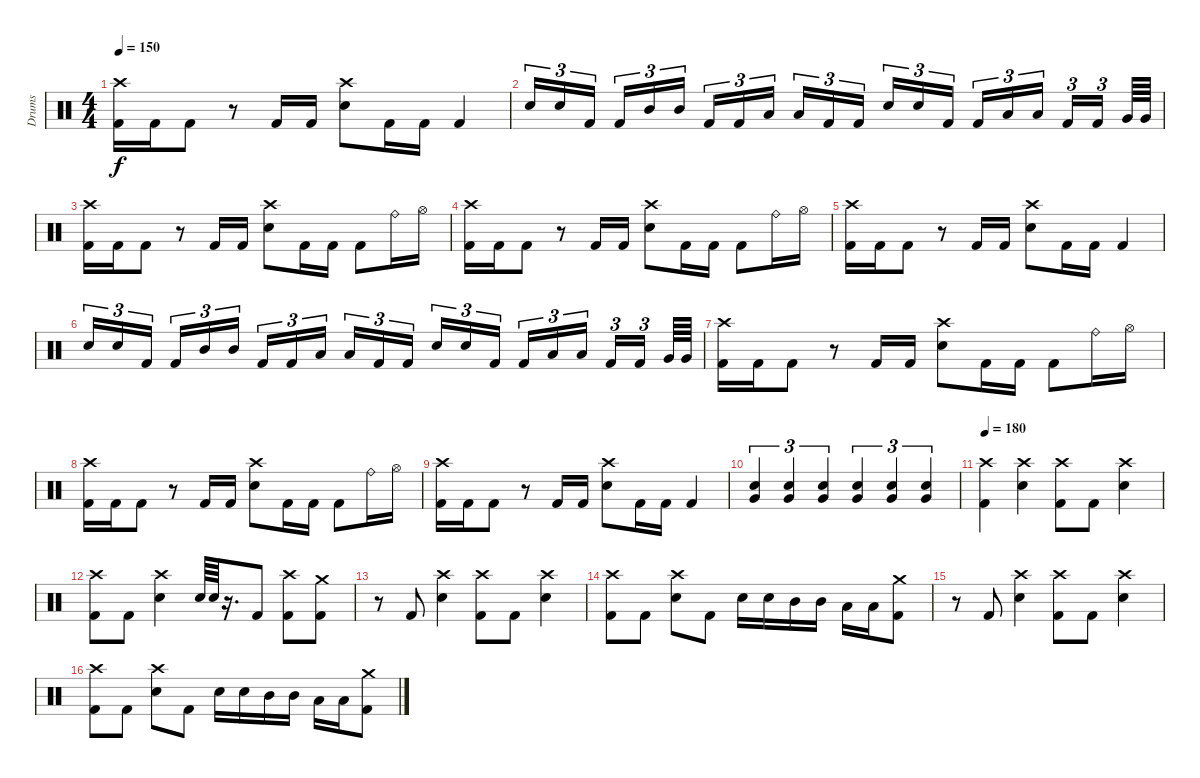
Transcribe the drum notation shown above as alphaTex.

\track ("Drums" "Drums") {instrument percussion}
\staff {score}
\articulation defaults
\ts (4 4)
\tempo 150
\clef neutral
\ks c
("Crash high (hit)" "Kick (hit) 2").16{dy f} "Kick (hit) 2".16 "Kick (hit) 2".8 r.8 "Kick (hit) 2".16 "Kick (hit) 2".16 ("Crash high (hit)" "Electric Snare (hit)").8 "Kick (hit) 2".16 "Kick (hit) 2".16 "Kick (hit) 2".4 |
"Electric Snare (hit)".16{tu (3 2)} "Electric Snare (hit)".16{tu (3 2)} "Kick (hit) 2".16{tu (3 2) beam splitsecondary} "Kick (hit) 2".16{tu (3 2)} "Mid Tom (hit)".16{tu (3 2)} "Mid Tom (hit)".16{tu (3 2)} "Kick (hit) 2".16{tu (3 2)} "Kick (hit) 2".16{tu (3 2)} "Low Tom (hit)".16{tu (3 2) beam splitsecondary} "Low Tom (hit)".16{tu (3 2)} "Kick (hit) 2".16{tu (3 2)} "Kick (hit) 2".16{tu (3 2)} "Electric Snare (hit)".16{tu (3 2)} "Electric Snare (hit)".16{tu (3 2)} "Kick (hit) 2".16{tu (3 2) beam splitsecondary} "Kick (hit) 2".16{tu (3 2)} "Low Tom (hit)".16{tu (3 2)} "Low Tom (hit)".16{tu (3 2)} "Kick (hit) 2".16{tu (3 2)} "Kick (hit) 2".16{tu (3 2) beam splitsecondary} "Very Low Tom (hit)".64 "Very Low Tom (hit)".64 |
("Crash high (hit)" "Kick (hit) 2").16 "Kick (hit) 2".16 "Kick (hit) 2".8 r.8 "Kick (hit) 2".16 "Kick (hit) 2".16 ("Crash high (hit)" "Electric Snare (hit)").8 "Kick (hit) 2".16 "Kick (hit) 2".16 "Kick (hit) 2".8 "Ride (bell)".16 "Hi-Hat (open)".16 |
("Crash high (hit)" "Kick (hit) 2").16 "Kick (hit) 2".16 "Kick (hit) 2".8 r.8 "Kick (hit) 2".16 "Kick (hit) 2".16 ("Crash high (hit)" "Electric Snare (hit)").8 "Kick (hit) 2".16 "Kick (hit) 2".16 "Kick (hit) 2".8 "Ride (bell)".16 "Hi-Hat (open)".16 |
("Crash high (hit)" "Kick (hit) 2").16 "Kick (hit) 2".16 "Kick (hit) 2".8 r.8 "Kick (hit) 2".16 "Kick (hit) 2".16 ("Crash high (hit)" "Electric Snare (hit)").8 "Kick (hit) 2".16 "Kick (hit) 2".16 "Kick (hit) 2".4 |
"Electric Snare (hit)".16{tu (3 2)} "Electric Snare (hit)".16{tu (3 2)} "Kick (hit) 2".16{tu (3 2) beam splitsecondary} "Kick (hit) 2".16{tu (3 2)} "Mid Tom (hit)".16{tu (3 2)} "Mid Tom (hit)".16{tu (3 2)} "Kick (hit) 2".16{tu (3 2)} "Kick (hit) 2".16{tu (3 2)} "Low Tom (hit)".16{tu (3 2) beam splitsecondary} "Low Tom (hit)".16{tu (3 2)} "Kick (hit) 2".16{tu (3 2)} "Kick (hit) 2".16{tu (3 2)} "Electric Snare (hit)".16{tu (3 2)} "Electric Snare (hit)".16{tu (3 2)} "Kick (hit) 2".16{tu (3 2) beam splitsecondary} "Kick (hit) 2".16{tu (3 2)} "Low Tom (hit)".16{tu (3 2)} "Low Tom (hit)".16{tu (3 2)} "Kick (hit) 2".16{tu (3 2)} "Kick (hit) 2".16{tu (3 2) beam splitsecondary} "Very Low Tom (hit)".64 "Very Low Tom (hit)".64 |
("Crash high (hit)" "Kick (hit) 2").16 "Kick (hit) 2".16 "Kick (hit) 2".8 r.8 "Kick (hit) 2".16 "Kick (hit) 2".16 ("Crash high (hit)" "Electric Snare (hit)").8 "Kick (hit) 2".16 "Kick (hit) 2".16 "Kick (hit) 2".8 "Ride (bell)".16 "Hi-Hat (open)".16 |
("Crash high (hit)" "Kick (hit) 2").16 "Kick (hit) 2".16 "Kick (hit) 2".8 r.8 "Kick (hit) 2".16 "Kick (hit) 2".16 ("Crash high (hit)" "Electric Snare (hit)").8 "Kick (hit) 2".16 "Kick (hit) 2".16 "Kick (hit) 2".8 "Ride (bell)".16 "Hi-Hat (open)".16 |
("Crash high (hit)" "Kick (hit) 2").16 "Kick (hit) 2".16 "Kick (hit) 2".8 r.8 "Kick (hit) 2".16 "Kick (hit) 2".16 ("Crash high (hit)" "Electric Snare (hit)").8 "Kick (hit) 2".16 "Kick (hit) 2".16 "Kick (hit) 2".4 |
("Electric Snare (hit)" "Very Low Tom (hit)").4{tu (3 2)} ("Electric Snare (hit)" "Very Low Tom (hit)").4{tu (3 2)} ("Electric Snare (hit)" "Very Low Tom (hit)").4{tu (3 2)} ("Electric Snare (hit)" "Very Low Tom (hit)").4{tu (3 2)} ("Electric Snare (hit)" "Very Low Tom (hit)").4{tu (3 2)} ("Electric Snare (hit)" "Very Low Tom (hit)").4{tu (3 2)} |
\tempo 180
("Crash high (hit)" "Kick (hit) 2").4 ("Crash high (hit)" "Electric Snare (hit)").4 ("Crash high (hit)" "Kick (hit) 2").8 "Kick (hit) 2".8 ("Crash high (hit)" "Electric Snare (hit)").4 |
("Crash high (hit)" "Kick (hit) 2").8 "Kick (hit) 2".8 ("Crash high (hit)" "Electric Snare (hit)").4 "Electric Snare (hit)".64 "Electric Snare (hit)".64 r.16{d} "Kick (hit) 2".8 ("Crash high (hit)" "Kick (hit) 2").8 ("Crash medium (hit)" "Kick (hit) 2").8 |
r.8 "Kick (hit) 2".8 ("Crash high (hit)" "Electric Snare (hit)").4 ("Crash high (hit)" "Kick (hit) 2").8 "Kick (hit) 2".8 ("Crash high (hit)" "Electric Snare (hit)").4 |
("Crash high (hit)" "Kick (hit) 2").8 "Kick (hit) 2".8 ("Crash high (hit)" "Electric Snare (hit)").8 "Kick (hit) 2".8 "Electric Snare (hit)".16 "Electric Snare (hit)".16 "Mid Tom (hit)".16 "Mid Tom (hit)".16 "Low Tom (hit)".16 "Low Tom (hit)".16 ("Crash medium (hit)" "Kick (hit) 2").8 |
r.8 "Kick (hit) 2".8 ("Crash high (hit)" "Electric Snare (hit)").4 ("Crash high (hit)" "Kick (hit) 2").8 "Kick (hit) 2".8 ("Crash high (hit)" "Electric Snare (hit)").4 |
("Crash high (hit)" "Kick (hit) 2").8 "Kick (hit) 2".8 ("Crash high (hit)" "Electric Snare (hit)").8 "Kick (hit) 2".8 "Electric Snare (hit)".16 "Electric Snare (hit)".16 "Mid Tom (hit)".16 "Mid Tom (hit)".16 "Low Tom (hit)".16 "Low Tom (hit)".16 ("Crash medium (hit)" "Kick (hit) 2").8
